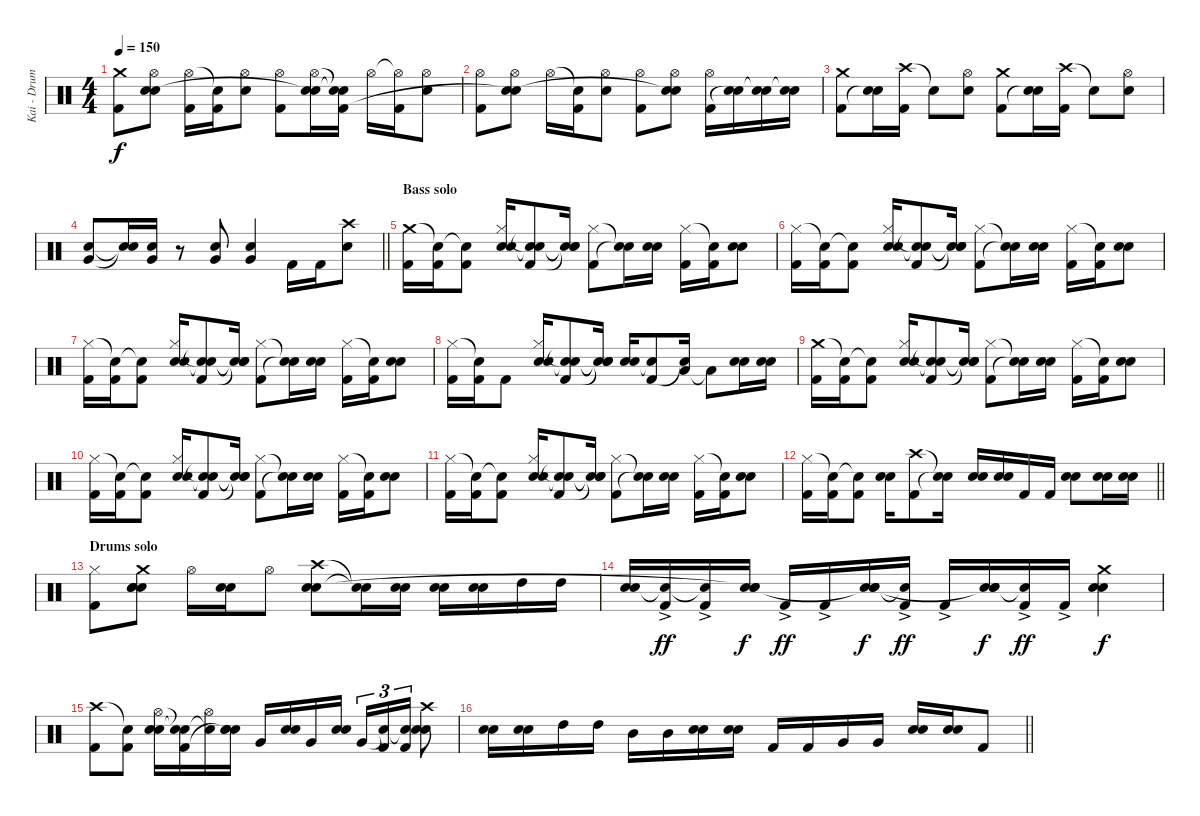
\track ("Kai - Drums" "Kai - Drum") {instrument percussion}
\staff {score}
\articulation defaults
\ts (4 4)
\tempo 150
\clef neutral
\ks c
("Crash medium (hit)" "Kick (hit) 2").8{dy f} ("Hi-Hat (open)" "Snare (hit) 2" "Snare (hit)"{t}).8 ("Hi-Hat (open)" "Kick (hit) 2").16 ("Snare (hit)"{t} "Kick (hit) 2").16 ("Hi-Hat (open)" "Snare (hit) 2").8 ("Hi-Hat (open)" "Kick (hit) 2").8 ("Hi-Hat (open)" "Snare (hit) 2" "Snare (hit)"{t}).16 ("Snare (hit)"{t} "Snare (hit)"{t} "Kick (hit) 2").16 "Hi-Hat (open)".16 ("Hi-Hat (open)"{t} "Kick (hit) 2").16 ("Hi-Hat (open)" "Snare (hit) 2").8 |
("Hi-Hat (open)" "Kick (hit) 2").8 ("Hi-Hat (open)" "Snare (hit) 2" "Snare (hit)"{t}).8 "Hi-Hat (open)".16 ("Snare (hit)"{t} "Kick (hit) 2").16 ("Hi-Hat (open)" "Snare (hit) 2").8 ("Hi-Hat (open)" "Kick (hit) 2").8 ("Hi-Hat (open)" "Snare (hit) 2" "Snare (hit)"{t}).8 ("Hi-Hat (open)" "Kick (hit) 2").16 ("Snare (hit) 2" "Snare (hit)"{t}).16 ("Snare (hit) 2" "Snare (hit)"{t}).16 ("Snare (hit) 2" "Snare (hit)"{t}).16 |
("Crash medium (hit)" "Kick (hit) 2").8 ("Snare (hit) 2" "Snare (hit)"{t}).16 ("Crash high (hit)" "Kick (hit) 2").16 "Snare (hit)"{t}.8 ("Hi-Hat (open)" "Snare (hit) 2").8 ("Crash medium (hit)" "Kick (hit) 2").8 ("Snare (hit) 2" "Snare (hit)"{t}).16 ("Crash high (hit)" "Kick (hit) 2").16 "Snare (hit)"{t}.8 ("Hi-Hat (open)" "Snare (hit) 2").8 |
\barLineRight lightlight
("Snare (hit) 2" "Very Low Tom (hit)").8 ("Snare (hit)"{t} "Snare (hit)"{t}).16 ("Snare (hit) 2" "Very Low Tom (hit)").16 r.8 ("Snare (hit) 2" "Very Low Tom (hit)").8 ("Snare (hit) 2" "Very Low Tom (hit)").4 "Kick (hit) 2".16 "Kick (hit) 2".16 ("Crash high (hit)" "Snare (hit) 2").8 |
\section ("" "Bass solo")
("Crash medium (hit)" "Kick (hit) 2").16 ("Snare (hit)"{t} "Kick (hit) 2").16 ("Snare (hit)"{t} "Kick (hit) 2").8 ("Hi-Hat (closed)" "Snare (hit) 2" "Electric Snare (hit)").16 ("Snare (hit)"{t} "Snare (hit)"{t} "Kick (hit) 2").8 ("Snare (hit)"{t} "Snare (hit)"{t} "Snare (hit)"{t}).16 ("Hi-Hat (closed)" "Kick (hit) 2").8 ("Snare (hit)"{t} "Snare (hit)"{t}).16 ("Snare (hit) 2" "Electric Snare (hit)").16 ("Hi-Hat (closed)" "Kick (hit) 2").16 ("Snare (hit)"{t} "Kick (hit) 2").16 ("Snare (hit) 2" "Electric Snare (hit)").8 |
("Hi-Hat (closed)" "Kick (hit) 2").16 ("Snare (hit)"{t} "Kick (hit) 2").16 ("Snare (hit)"{t} "Kick (hit) 2").8 ("Hi-Hat (closed)" "Snare (hit) 2" "Electric Snare (hit)").16 ("Snare (hit)"{t} "Snare (hit)"{t} "Kick (hit) 2").8 ("Snare (hit)"{t} "Snare (hit)"{t} "Snare (hit)"{t}).16 ("Hi-Hat (closed)" "Kick (hit) 2").8 ("Snare (hit)"{t} "Snare (hit)"{t}).16 ("Snare (hit) 2" "Electric Snare (hit)").16 ("Hi-Hat (closed)" "Kick (hit) 2").16 ("Snare (hit)"{t} "Kick (hit) 2").16 ("Snare (hit) 2" "Electric Snare (hit)").8 |
("Hi-Hat (closed)" "Kick (hit) 2").16 ("Snare (hit)"{t} "Kick (hit) 2").16 ("Snare (hit)"{t} "Kick (hit) 2").8 ("Hi-Hat (closed)" "Snare (hit) 2" "Electric Snare (hit)").16 ("Snare (hit)"{t} "Snare (hit)"{t} "Kick (hit) 2").8 ("Snare (hit)"{t} "Snare (hit)"{t} "Snare (hit)"{t}).16 ("Hi-Hat (closed)" "Kick (hit) 2").8 ("Snare (hit)"{t} "Snare (hit)"{t}).16 ("Snare (hit) 2" "Electric Snare (hit)").16 ("Hi-Hat (closed)" "Kick (hit) 2").16 ("Snare (hit)"{t} "Kick (hit) 2").16 ("Snare (hit) 2" "Electric Snare (hit)").8 |
("Hi-Hat (closed)" "Kick (hit) 2").16 ("Snare (hit)"{t} "Kick (hit) 2").16 "Kick (hit) 2".8 ("Hi-Hat (closed)" "Snare (hit) 2" "Electric Snare (hit)").16 ("Snare (hit)"{t} "Snare (hit)"{t} "Kick (hit) 2").8 ("Snare (hit)"{t} "Snare (hit)"{t} "Snare (hit)"{t}).16 ("Snare (hit) 2" "Electric Snare (hit)").16 ("Snare (hit)"{t} "Kick (hit) 2").8 ("Low Tom (hit)" "Snare (hit)"{t}).16 "Low Tom (hit)"{t}.8 ("Snare (hit) 2" "Electric Snare (hit)").16 ("Snare (hit) 2" "Electric Snare (hit)").16 |
("Crash medium (hit)" "Kick (hit) 2").16 ("Snare (hit)"{t} "Kick (hit) 2").16 ("Snare (hit)"{t} "Kick (hit) 2").8 ("Hi-Hat (closed)" "Snare (hit) 2" "Electric Snare (hit)").16 ("Snare (hit)"{t} "Snare (hit)"{t} "Kick (hit) 2").8 ("Snare (hit)"{t} "Snare (hit)"{t} "Snare (hit)"{t}).16 ("Hi-Hat (closed)" "Kick (hit) 2").8 ("Snare (hit)"{t} "Snare (hit)"{t}).16 ("Snare (hit) 2" "Electric Snare (hit)").16 ("Hi-Hat (closed)" "Kick (hit) 2").16 ("Snare (hit)"{t} "Kick (hit) 2").16 ("Snare (hit) 2" "Electric Snare (hit)").8 |
("Hi-Hat (closed)" "Kick (hit) 2").16 ("Snare (hit)"{t} "Kick (hit) 2").16 ("Snare (hit)"{t} "Kick (hit) 2").8 ("Hi-Hat (closed)" "Snare (hit) 2" "Electric Snare (hit)").16 ("Snare (hit)"{t} "Snare (hit)"{t} "Kick (hit) 2").8 ("Snare (hit)"{t} "Snare (hit)"{t} "Snare (hit)"{t}).16 ("Hi-Hat (closed)" "Kick (hit) 2").8 ("Snare (hit)"{t} "Snare (hit)"{t}).16 ("Snare (hit) 2" "Electric Snare (hit)").16 ("Hi-Hat (closed)" "Kick (hit) 2").16 ("Snare (hit)"{t} "Kick (hit) 2").16 ("Snare (hit) 2" "Electric Snare (hit)").8 |
("Hi-Hat (closed)" "Kick (hit) 2").16 ("Snare (hit)"{t} "Kick (hit) 2").16 ("Snare (hit)"{t} "Kick (hit) 2").8 ("Hi-Hat (closed)" "Snare (hit) 2" "Electric Snare (hit)").16 ("Snare (hit)"{t} "Snare (hit)"{t} "Kick (hit) 2").8 ("Snare (hit)"{t} "Snare (hit)"{t} "Snare (hit)"{t}).16 ("Hi-Hat (closed)" "Kick (hit) 2").8 ("Snare (hit)"{t} "Snare (hit)"{t}).16 ("Snare (hit) 2" "Electric Snare (hit)").16 ("Hi-Hat (closed)" "Kick (hit) 2").16 ("Snare (hit)"{t} "Kick (hit) 2").16 ("Snare (hit) 2" "Electric Snare (hit)").8 |
\barLineRight lightlight
("Hi-Hat (closed)" "Kick (hit) 2").16 ("Snare (hit)"{t} "Kick (hit) 2").16 ("Snare (hit)"{t} "Kick (hit) 2").8 ("Snare (hit) 2" "Electric Snare (hit)").16 ("Crash high (hit)" "Kick (hit) 2").8 ("Snare (hit)"{t} "Snare (hit)"{t}).16 ("Snare (hit) 2" "Electric Snare (hit)").16 ("Snare (hit) 2" "Electric Snare (hit)").16 "Kick (hit) 2".16 "Kick (hit) 2".16 ("Snare (hit) 2" "Electric Snare (hit)").8 ("Snare (hit) 2" "Electric Snare (hit)").16 ("Snare (hit) 2" "Electric Snare (hit)").16 |
\section ("" "Drums solo")
("Hi-Hat (closed)" "Kick (hit) 2").8 ("Crash medium (hit)" "Snare (hit) 2" "Electric Snare (hit)" "Snare (hit)").8 "Hi-Hat (open)".16 ("Snare (hit) 2" "Electric Snare (hit)").16 "Hi-Hat (open)".8 ("Crash high (hit)" "Snare (hit) 2" "Electric Snare (hit)").8 ("Snare (hit)"{t} "Snare (hit)"{t}).16 ("Snare (hit) 2" "Electric Snare (hit)").16 ("Snare (hit) 2" "Electric Snare (hit)").16 ("Snare (hit) 2" "Electric Snare (hit)").16 "High Tom (hit)".16 "High Tom (hit)".16 |
("Snare (hit) 2" "Electric Snare (hit)").16 ("Snare (hit)"{t} "Kick (hit) 2"{ac}).16{dy ff} ("Snare (hit)"{t} "Kick (hit) 2"{ac}).16 ("Snare (hit) 2" "Electric Snare (hit)" "Snare (hit)"{t}).16{dy f} "Kick (hit) 2"{ac}.16{dy ff} "Kick (hit) 2"{ac}.16 ("Snare (hit) 2" "Electric Snare (hit)" "Snare (hit)"{t}).16{dy f} ("Snare (hit)"{t} "Kick (hit) 2"{ac}).16{dy ff} "Kick (hit) 2"{ac}.16 ("Snare (hit) 2" "Electric Snare (hit)" "Snare (hit)"{t}).16{dy f} ("Snare (hit)"{t} "Kick (hit) 2"{ac}).16{dy ff} "Kick (hit) 2"{ac}.16 ("Crash medium (hit)" "Snare (hit) 2" "Electric Snare (hit)").4{dy f} |
("Crash high (hit)" "Kick (hit) 2").8 ("Snare (hit)"{t} "Kick (hit) 2").8 ("Hi-Hat (open)" "Snare (hit) 2" "Electric Snare (hit)").16 ("Snare (hit)"{t} "Snare (hit)"{t} "Kick (hit) 2").16 ("Hi-Hat (open)" "Snare (hit)"{t}).16 ("Snare (hit) 2" "Electric Snare (hit)" "Snare (hit)"{t}).16 "Very Low Tom (hit)".16 ("Snare (hit) 2" "Electric Snare (hit)").16 "Very Low Tom (hit)".16 ("Snare (hit) 2" "Electric Snare (hit)").16 "Very Low Tom (hit)".16{tu (3 2)} ("Snare (hit)"{t} "Kick (hit) 2").16{tu (3 2)} ("Snare (hit)"{t} "Kick (hit) 2").16{tu (3 2)} ("Crash high (hit)" "Snare (hit) 2" "Electric Snare (hit)").8 |
\barLineRight lightlight
("Snare (hit) 2" "Electric Snare (hit)").16 ("Snare (hit) 2" "Electric Snare (hit)").16 "High Tom (hit)".16 "High Tom (hit)".16 "Mid Tom (hit)".16 "Mid Tom (hit)".16 ("Snare (hit) 2" "Electric Snare (hit)").16 ("Snare (hit) 2" "Electric Snare (hit)").16 "Kick (hit) 2".16 "Kick (hit) 2".16 "Very Low Tom (hit)".16 "Very Low Tom (hit)".16 ("Snare (hit) 2" "Electric Snare (hit)").16 ("Snare (hit) 2" "Electric Snare (hit)").16 "Kick (hit) 2".8
